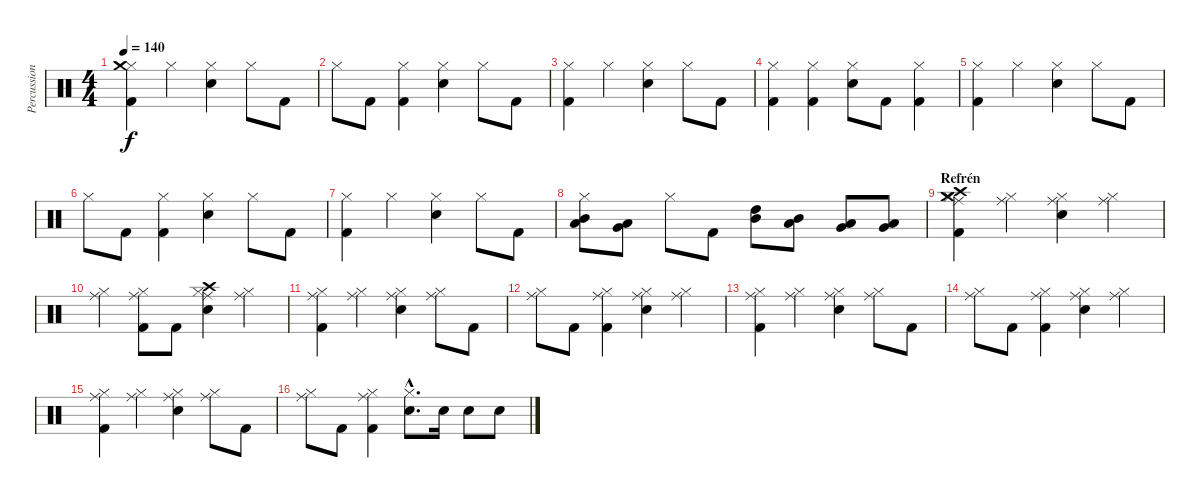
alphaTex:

\track ("Percussion" "Percussion") {instrument percussion}
\staff {score}
\articulation defaults
\ts (4 4)
\tempo 140
\clef neutral
\ks c
("Hi-Hat (closed)" "Kick (hit) 2" "Crash medium (hit)").4{dy f} "Hi-Hat (closed)".4 ("Hi-Hat (closed)" "Electric Snare (hit)").4 "Hi-Hat (closed)".8 "Kick (hit) 2".8 |
"Hi-Hat (closed)".8 "Kick (hit) 2".8 ("Hi-Hat (closed)" "Kick (hit) 2").4 ("Hi-Hat (closed)" "Electric Snare (hit)").4 "Hi-Hat (closed)".8 "Kick (hit) 2".8 |
("Hi-Hat (closed)" "Kick (hit) 2").4 "Hi-Hat (closed)".4 ("Hi-Hat (closed)" "Electric Snare (hit)").4 "Hi-Hat (closed)".8 "Kick (hit) 2".8 |
("Hi-Hat (closed)" "Kick (hit) 2").4 ("Hi-Hat (closed)" "Kick (hit) 2").4 ("Hi-Hat (closed)" "Electric Snare (hit)").8 "Kick (hit) 2".8 ("Hi-Hat (closed)" "Kick (hit) 2").4 |
("Hi-Hat (closed)" "Kick (hit) 2").4 "Hi-Hat (closed)".4 ("Hi-Hat (closed)" "Electric Snare (hit)").4 "Hi-Hat (closed)".8 "Kick (hit) 2".8 |
"Hi-Hat (closed)".8 "Kick (hit) 2".8 ("Hi-Hat (closed)" "Kick (hit) 2").4 ("Hi-Hat (closed)" "Electric Snare (hit)").4 "Hi-Hat (closed)".8 "Kick (hit) 2".8 |
("Hi-Hat (closed)" "Kick (hit) 2").4 "Hi-Hat (closed)".4 ("Hi-Hat (closed)" "Electric Snare (hit)").4 "Hi-Hat (closed)".8 "Kick (hit) 2".8 |
("Hi-Hat (closed)" "Mid Tom (hit)" "Low Tom (hit)").8 ("Low Tom (hit)" "Very Low Tom (hit)").8 "Hi-Hat (closed)".8 "Kick (hit) 2".8 ("Mid Tom (hit)" "High Tom (hit)").8 ("Low Tom (hit)" "Mid Tom (hit)").8 ("Very Low Tom (hit)" "Low Tom (hit)").8 ("Low Floor Tom (hit)" "Very Low Tom (hit)").8 |
\section ("" "Refrén")
("Hi-Hat (closed)" "Crash high (hit)" "Kick (hit) 2" "Crash medium (hit)" "Ride (middle)").4 ("Hi-Hat (closed)" "Ride (middle)").4 ("Hi-Hat (closed)" "Electric Snare (hit)" "Ride (middle)").4 ("Hi-Hat (closed)" "Ride (middle)").4 |
("Hi-Hat (closed)" "Ride (middle)").4 ("Hi-Hat (closed)" "Kick (hit) 2" "Ride (middle)").8 "Kick (hit) 2".8 ("Hi-Hat (closed)" "Crash high (hit)" "Electric Snare (hit)" "Ride (middle)").4 ("Hi-Hat (closed)" "Ride (middle)").4 |
("Hi-Hat (closed)" "Kick (hit) 2" "Ride (middle)").4 ("Hi-Hat (closed)" "Ride (middle)").4 ("Hi-Hat (closed)" "Electric Snare (hit)" "Ride (middle)").4 ("Hi-Hat (closed)" "Ride (middle)").8 "Kick (hit) 2".8 |
("Hi-Hat (closed)" "Ride (middle)").8 "Kick (hit) 2".8 ("Hi-Hat (closed)" "Kick (hit) 2" "Ride (middle)").4 ("Hi-Hat (closed)" "Electric Snare (hit)" "Ride (middle)").4 ("Hi-Hat (closed)" "Ride (middle)").4 |
("Hi-Hat (closed)" "Kick (hit) 2" "Ride (middle)").4 ("Hi-Hat (closed)" "Ride (middle)").4 ("Hi-Hat (closed)" "Electric Snare (hit)" "Ride (middle)").4 ("Hi-Hat (closed)" "Ride (middle)").8 "Kick (hit) 2".8 |
("Hi-Hat (closed)" "Ride (middle)").8 "Kick (hit) 2".8 ("Hi-Hat (closed)" "Kick (hit) 2" "Ride (middle)").4 ("Hi-Hat (closed)" "Electric Snare (hit)" "Ride (middle)").4 ("Hi-Hat (closed)" "Ride (middle)").4 |
("Hi-Hat (closed)" "Kick (hit) 2" "Ride (middle)").4 ("Hi-Hat (closed)" "Ride (middle)").4 ("Hi-Hat (closed)" "Electric Snare (hit)" "Ride (middle)").4 ("Hi-Hat (closed)" "Ride (middle)").8 "Kick (hit) 2".8 |
("Hi-Hat (closed)" "Ride (middle)").8 "Kick (hit) 2".8 ("Hi-Hat (closed)" "Kick (hit) 2" "Ride (middle)").4 ("Hi-Hat (closed)"{hac} "Electric Snare (hit)"{hac}).8{d} "Electric Snare (hit)".16 "Electric Snare (hit)".8 "Electric Snare (hit)".8
